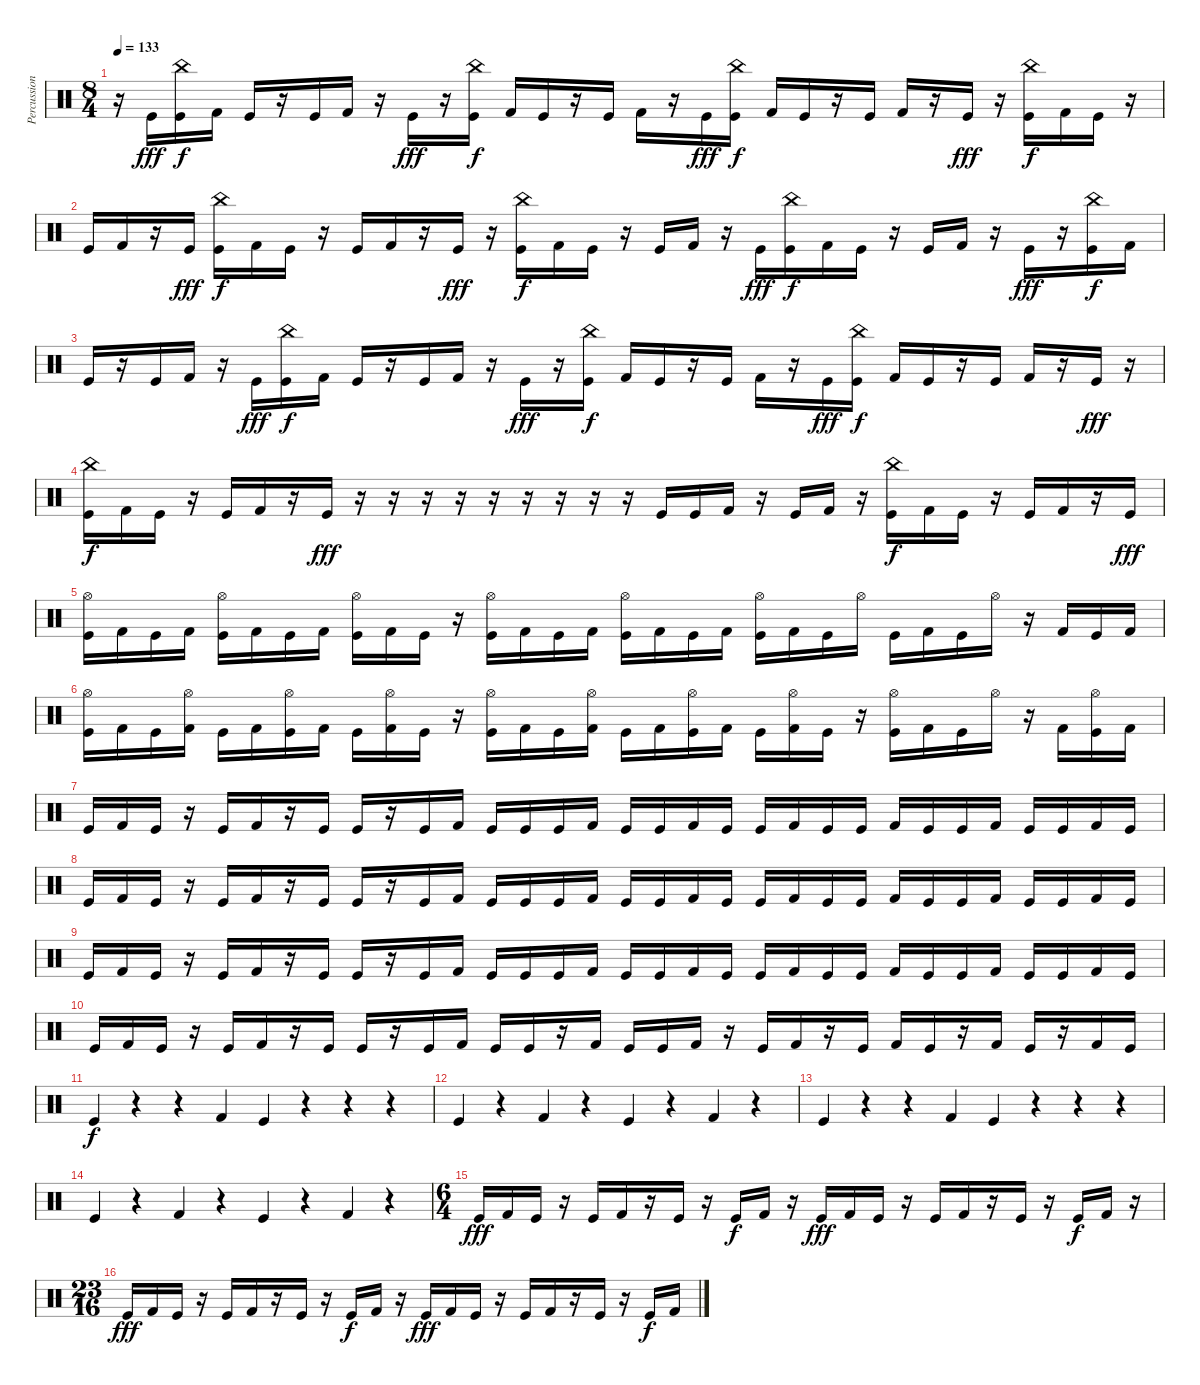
\track ("Percussion" "Percussion") {instrument percussion}
\staff {score}
\articulation defaults
\ts (8 4)
\tempo 133
\clef neutral
\ks c
r.16{dy f} "Kick (hit)".16{dy fff} ("China (hit)" "Kick (hit)").16{dy f} "Kick (hit) 2".16 "Kick (hit)".16 r.16 "Kick (hit)".16 "Kick (hit) 2".16 r.16 "Kick (hit)".16{dy fff} r.16 ("China (hit)" "Kick (hit)").16{dy f} "Kick (hit) 2".16 "Kick (hit)".16 r.16 "Kick (hit)".16 "Kick (hit) 2".16 r.16 "Kick (hit)".16{dy fff} ("China (hit)" "Kick (hit)").16{dy f} "Kick (hit) 2".16 "Kick (hit)".16 r.16 "Kick (hit)".16 "Kick (hit) 2".16 r.16 "Kick (hit)".16{dy fff} r.16 ("China (hit)" "Kick (hit)").16{dy f} "Kick (hit) 2".16 "Kick (hit)".16 r.16 |
"Kick (hit)".16 "Kick (hit) 2".16 r.16 "Kick (hit)".16{dy fff} ("China (hit)" "Kick (hit)").16{dy f} "Kick (hit) 2".16 "Kick (hit)".16 r.16 "Kick (hit)".16 "Kick (hit) 2".16 r.16 "Kick (hit)".16{dy fff} r.16 ("China (hit)" "Kick (hit)").16{dy f} "Kick (hit) 2".16 "Kick (hit)".16 r.16 "Kick (hit)".16 "Kick (hit) 2".16 r.16 "Kick (hit)".16{dy fff} ("China (hit)" "Kick (hit)").16{dy f} "Kick (hit) 2".16 "Kick (hit)".16 r.16 "Kick (hit)".16 "Kick (hit) 2".16 r.16 "Kick (hit)".16{dy fff} r.16 ("China (hit)" "Kick (hit)").16{dy f} "Kick (hit) 2".16 |
"Kick (hit)".16 r.16 "Kick (hit)".16 "Kick (hit) 2".16 r.16 "Kick (hit)".16{dy fff} ("China (hit)" "Kick (hit)").16{dy f} "Kick (hit) 2".16 "Kick (hit)".16 r.16 "Kick (hit)".16 "Kick (hit) 2".16 r.16 "Kick (hit)".16{dy fff} r.16 ("China (hit)" "Kick (hit)").16{dy f} "Kick (hit) 2".16 "Kick (hit)".16 r.16 "Kick (hit)".16 "Kick (hit) 2".16 r.16 "Kick (hit)".16{dy fff} ("China (hit)" "Kick (hit)").16{dy f} "Kick (hit) 2".16 "Kick (hit)".16 r.16 "Kick (hit)".16 "Kick (hit) 2".16 r.16 "Kick (hit)".16{dy fff} r.16 |
("China (hit)" "Kick (hit)").16{dy f} "Kick (hit) 2".16 "Kick (hit)".16 r.16 "Kick (hit)".16 "Kick (hit) 2".16 r.16 "Kick (hit)".16{dy fff} r.16 r.16 r.16 r.16 r.16 r.16 r.16 r.16 r.16 "Kick (hit)".16 "Kick (hit)".16 "Kick (hit) 2".16 r.16 "Kick (hit)".16 "Kick (hit) 2".16 r.16 ("China (hit)" "Kick (hit)").16{dy f} "Kick (hit) 2".16 "Kick (hit)".16 r.16 "Kick (hit)".16 "Kick (hit) 2".16 r.16 "Kick (hit)".16{dy fff} |
("Hi-Hat (open)" "Kick (hit)").16 "Kick (hit) 2".16 "Kick (hit)".16 "Kick (hit) 2".16 ("Hi-Hat (open)" "Kick (hit)").16 "Kick (hit) 2".16 "Kick (hit)".16 "Kick (hit) 2".16 ("Hi-Hat (open)" "Kick (hit)").16 "Kick (hit) 2".16 "Kick (hit)".16 r.16 ("Hi-Hat (open)" "Kick (hit)").16 "Kick (hit) 2".16 "Kick (hit)".16 "Kick (hit) 2".16 ("Hi-Hat (open)" "Kick (hit)").16 "Kick (hit) 2".16 "Kick (hit)".16 "Kick (hit) 2".16 ("Hi-Hat (open)" "Kick (hit)").16 "Kick (hit) 2".16 "Kick (hit)".16 "Hi-Hat (open)".16 "Kick (hit)".16 "Kick (hit) 2".16 "Kick (hit)".16 "Hi-Hat (open)".16 r.16 "Kick (hit) 2".16 "Kick (hit)".16 "Kick (hit) 2".16 |
("Hi-Hat (open)" "Kick (hit)").16 "Kick (hit) 2".16 "Kick (hit)".16 ("Hi-Hat (open)" "Kick (hit) 2").16 "Kick (hit)".16 "Kick (hit) 2".16 ("Hi-Hat (open)" "Kick (hit)").16 "Kick (hit) 2".16 "Kick (hit)".16 ("Hi-Hat (open)" "Kick (hit) 2").16 "Kick (hit)".16 r.16 ("Hi-Hat (open)" "Kick (hit)").16 "Kick (hit) 2".16 "Kick (hit)".16 ("Hi-Hat (open)" "Kick (hit) 2").16 "Kick (hit)".16 "Kick (hit) 2".16 ("Hi-Hat (open)" "Kick (hit)").16 "Kick (hit) 2".16 "Kick (hit)".16 ("Hi-Hat (open)" "Kick (hit) 2").16 "Kick (hit)".16 r.16 ("Hi-Hat (open)" "Kick (hit)").16 "Kick (hit) 2".16 "Kick (hit)".16 "Hi-Hat (open)".16 r.16 "Kick (hit) 2".16 ("Hi-Hat (open)" "Kick (hit)").16 "Kick (hit) 2".16 |
"Kick (hit)".16 "Kick (hit) 2".16 "Kick (hit)".16 r.16 "Kick (hit)".16 "Kick (hit) 2".16 r.16 "Kick (hit)".16 "Kick (hit)".16 r.16 "Kick (hit)".16 "Kick (hit) 2".16 "Kick (hit)".16 "Kick (hit)".16 "Kick (hit)".16 "Kick (hit) 2".16 "Kick (hit)".16 "Kick (hit)".16 "Kick (hit) 2".16 "Kick (hit)".16 "Kick (hit)".16 "Kick (hit) 2".16 "Kick (hit)".16 "Kick (hit)".16 "Kick (hit) 2".16 "Kick (hit)".16 "Kick (hit)".16 "Kick (hit) 2".16 "Kick (hit)".16 "Kick (hit)".16 "Kick (hit) 2".16 "Kick (hit)".16 |
"Kick (hit)".16 "Kick (hit) 2".16 "Kick (hit)".16 r.16 "Kick (hit)".16 "Kick (hit) 2".16 r.16 "Kick (hit)".16 "Kick (hit)".16 r.16 "Kick (hit)".16 "Kick (hit) 2".16 "Kick (hit)".16 "Kick (hit)".16 "Kick (hit)".16 "Kick (hit) 2".16 "Kick (hit)".16 "Kick (hit)".16 "Kick (hit) 2".16 "Kick (hit)".16 "Kick (hit)".16 "Kick (hit) 2".16 "Kick (hit)".16 "Kick (hit)".16 "Kick (hit) 2".16 "Kick (hit)".16 "Kick (hit)".16 "Kick (hit) 2".16 "Kick (hit)".16 "Kick (hit)".16 "Kick (hit) 2".16 "Kick (hit)".16 |
"Kick (hit)".16 "Kick (hit) 2".16 "Kick (hit)".16 r.16 "Kick (hit)".16 "Kick (hit) 2".16 r.16 "Kick (hit)".16 "Kick (hit)".16 r.16 "Kick (hit)".16 "Kick (hit) 2".16 "Kick (hit)".16 "Kick (hit)".16 "Kick (hit)".16 "Kick (hit) 2".16 "Kick (hit)".16 "Kick (hit)".16 "Kick (hit) 2".16 "Kick (hit)".16 "Kick (hit)".16 "Kick (hit) 2".16 "Kick (hit)".16 "Kick (hit)".16 "Kick (hit) 2".16 "Kick (hit)".16 "Kick (hit)".16 "Kick (hit) 2".16 "Kick (hit)".16 "Kick (hit)".16 "Kick (hit) 2".16 "Kick (hit)".16 |
"Kick (hit)".16 "Kick (hit) 2".16 "Kick (hit)".16 r.16 "Kick (hit)".16 "Kick (hit) 2".16 r.16 "Kick (hit)".16 "Kick (hit)".16 r.16 "Kick (hit)".16 "Kick (hit) 2".16 "Kick (hit)".16 "Kick (hit)".16 r.16 "Kick (hit) 2".16 "Kick (hit)".16 "Kick (hit)".16 "Kick (hit) 2".16 r.16 "Kick (hit)".16 "Kick (hit) 2".16 r.16 "Kick (hit)".16 "Kick (hit) 2".16 "Kick (hit)".16 r.16 "Kick (hit) 2".16 "Kick (hit)".16 r.16 "Kick (hit) 2".16 "Kick (hit)".16 |
"Kick (hit)".4{dy f} r.4 r.4 "Kick (hit) 2".4 "Kick (hit)".4 r.4 r.4 r.4 |
"Kick (hit)".4 r.4 "Kick (hit) 2".4 r.4 "Kick (hit)".4 r.4 "Kick (hit) 2".4 r.4 |
"Kick (hit)".4 r.4 r.4 "Kick (hit) 2".4 "Kick (hit)".4 r.4 r.4 r.4 |
"Kick (hit)".4 r.4 "Kick (hit) 2".4 r.4 "Kick (hit)".4 r.4 "Kick (hit) 2".4 r.4 |
\ts (6 4)
"Kick (hit)".16{dy fff} "Kick (hit) 2".16 "Kick (hit)".16 r.16 "Kick (hit)".16 "Kick (hit) 2".16 r.16 "Kick (hit)".16 r.16 "Kick (hit)".16{dy f} "Kick (hit) 2".16 r.16 "Kick (hit)".16{dy fff} "Kick (hit) 2".16 "Kick (hit)".16 r.16 "Kick (hit)".16 "Kick (hit) 2".16 r.16 "Kick (hit)".16 r.16 "Kick (hit)".16{dy f} "Kick (hit) 2".16 r.16 |
\ts (23 16)
"Kick (hit)".16{dy fff} "Kick (hit) 2".16 "Kick (hit)".16 r.16 "Kick (hit)".16 "Kick (hit) 2".16 r.16 "Kick (hit)".16 r.16 "Kick (hit)".16{dy f} "Kick (hit) 2".16 r.16 "Kick (hit)".16{dy fff} "Kick (hit) 2".16 "Kick (hit)".16 r.16 "Kick (hit)".16 "Kick (hit) 2".16 r.16 "Kick (hit)".16 r.16 "Kick (hit)".16{dy f} "Kick (hit) 2".16
